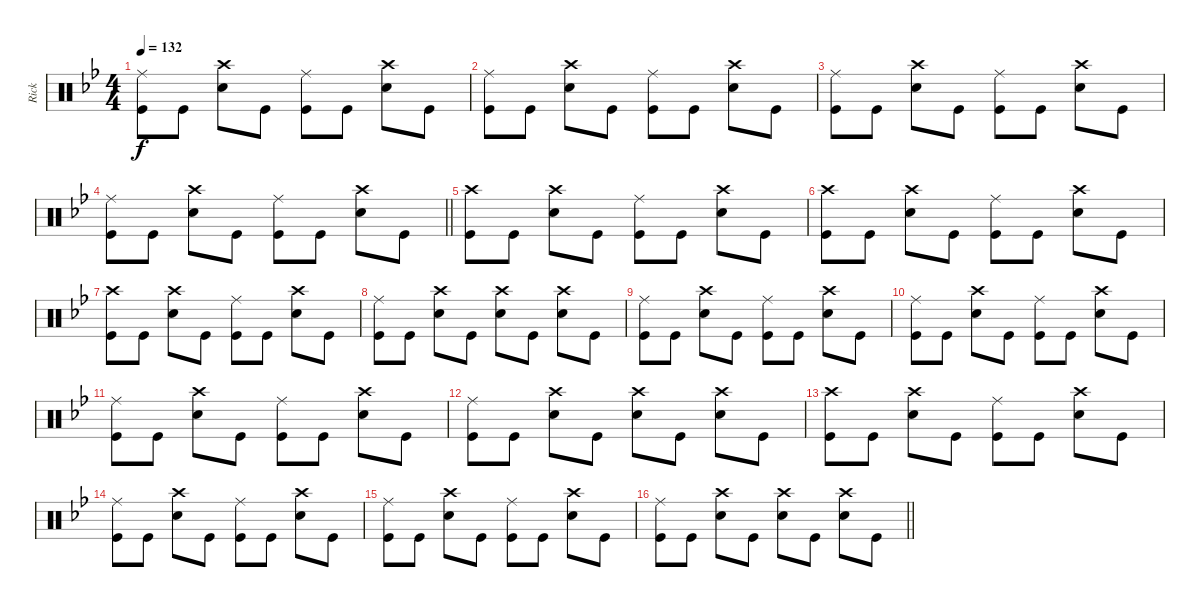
\track ("Rick" "Rick") {instrument percussion}
\staff {score}
\articulation defaults
\ts (4 4)
\tempo 132
\clef neutral
\ks gminor
("Ride (middle)" "Kick (hit)").8{dy f} "Kick (hit)".8 ("Crash high (hit)" "Snare (hit) 2").8 "Kick (hit)".8 ("Ride (middle)" "Kick (hit)").8 "Kick (hit)".8 ("Crash high (hit)" "Snare (hit) 2").8 "Kick (hit)".8 |
("Ride (middle)" "Kick (hit)").8 "Kick (hit)".8 ("Crash high (hit)" "Snare (hit) 2").8 "Kick (hit)".8 ("Ride (middle)" "Kick (hit)").8 "Kick (hit)".8 ("Crash high (hit)" "Snare (hit) 2").8 "Kick (hit)".8 |
("Ride (middle)" "Kick (hit)").8 "Kick (hit)".8 ("Crash high (hit)" "Snare (hit) 2").8 "Kick (hit)".8 ("Ride (middle)" "Kick (hit)").8 "Kick (hit)".8 ("Crash high (hit)" "Snare (hit) 2").8 "Kick (hit)".8 |
\barLineRight lightlight
("Ride (middle)" "Kick (hit)").8 "Kick (hit)".8 ("Crash high (hit)" "Snare (hit) 2").8 "Kick (hit)".8 ("Ride (middle)" "Kick (hit)").8 "Kick (hit)".8 ("Crash high (hit)" "Snare (hit) 2").8 "Kick (hit)".8 |
("Crash high (hit)" "Kick (hit)").8 "Kick (hit)".8 ("Crash high (hit)" "Snare (hit) 2").8 "Kick (hit)".8 ("Ride (middle)" "Kick (hit)").8 "Kick (hit)".8 ("Crash high (hit)" "Snare (hit) 2").8 "Kick (hit)".8 |
("Crash high (hit)" "Kick (hit)").8 "Kick (hit)".8 ("Crash high (hit)" "Snare (hit) 2").8 "Kick (hit)".8 ("Ride (middle)" "Kick (hit)").8 "Kick (hit)".8 ("Crash high (hit)" "Snare (hit) 2").8 "Kick (hit)".8 |
("Crash high (hit)" "Kick (hit)").8 "Kick (hit)".8 ("Crash high (hit)" "Snare (hit) 2").8 "Kick (hit)".8 ("Ride (middle)" "Kick (hit)").8 "Kick (hit)".8 ("Crash high (hit)" "Snare (hit) 2").8 "Kick (hit)".8 |
("Ride (middle)" "Kick (hit)").8 "Kick (hit)".8 ("Crash high (hit)" "Snare (hit) 2").8 "Kick (hit)".8 ("Crash high (hit)" "Snare (hit) 2").8 "Kick (hit)".8 ("Crash high (hit)" "Snare (hit) 2").8 "Kick (hit)".8 |
("Ride (middle)" "Kick (hit)").8 "Kick (hit)".8 ("Crash high (hit)" "Snare (hit) 2").8 "Kick (hit)".8 ("Ride (middle)" "Kick (hit)").8 "Kick (hit)".8 ("Crash high (hit)" "Snare (hit) 2").8 "Kick (hit)".8 |
("Ride (middle)" "Kick (hit)").8 "Kick (hit)".8 ("Crash high (hit)" "Snare (hit) 2").8 "Kick (hit)".8 ("Ride (middle)" "Kick (hit)").8 "Kick (hit)".8 ("Crash high (hit)" "Snare (hit) 2").8 "Kick (hit)".8 |
("Ride (middle)" "Kick (hit)").8 "Kick (hit)".8 ("Crash high (hit)" "Snare (hit) 2").8 "Kick (hit)".8 ("Ride (middle)" "Kick (hit)").8 "Kick (hit)".8 ("Crash high (hit)" "Snare (hit) 2").8 "Kick (hit)".8 |
("Ride (middle)" "Kick (hit)").8 "Kick (hit)".8 ("Crash high (hit)" "Snare (hit) 2").8 "Kick (hit)".8 ("Crash high (hit)" "Snare (hit) 2").8 "Kick (hit)".8 ("Crash high (hit)" "Snare (hit) 2").8 "Kick (hit)".8 |
("Crash high (hit)" "Kick (hit)").8 "Kick (hit)".8 ("Crash high (hit)" "Snare (hit) 2").8 "Kick (hit)".8 ("Ride (middle)" "Kick (hit)").8 "Kick (hit)".8 ("Crash high (hit)" "Snare (hit) 2").8 "Kick (hit)".8 |
("Ride (middle)" "Kick (hit)").8 "Kick (hit)".8 ("Crash high (hit)" "Snare (hit) 2").8 "Kick (hit)".8 ("Ride (middle)" "Kick (hit)").8 "Kick (hit)".8 ("Crash high (hit)" "Snare (hit) 2").8 "Kick (hit)".8 |
("Ride (middle)" "Kick (hit)").8 "Kick (hit)".8 ("Crash high (hit)" "Snare (hit) 2").8 "Kick (hit)".8 ("Ride (middle)" "Kick (hit)").8 "Kick (hit)".8 ("Crash high (hit)" "Snare (hit) 2").8 "Kick (hit)".8 |
\barLineRight lightlight
("Ride (middle)" "Kick (hit)").8 "Kick (hit)".8 ("Crash high (hit)" "Snare (hit) 2").8 "Kick (hit)".8 ("Crash high (hit)" "Snare (hit) 2").8 "Kick (hit)".8 ("Crash high (hit)" "Snare (hit) 2").8 "Kick (hit)".8
